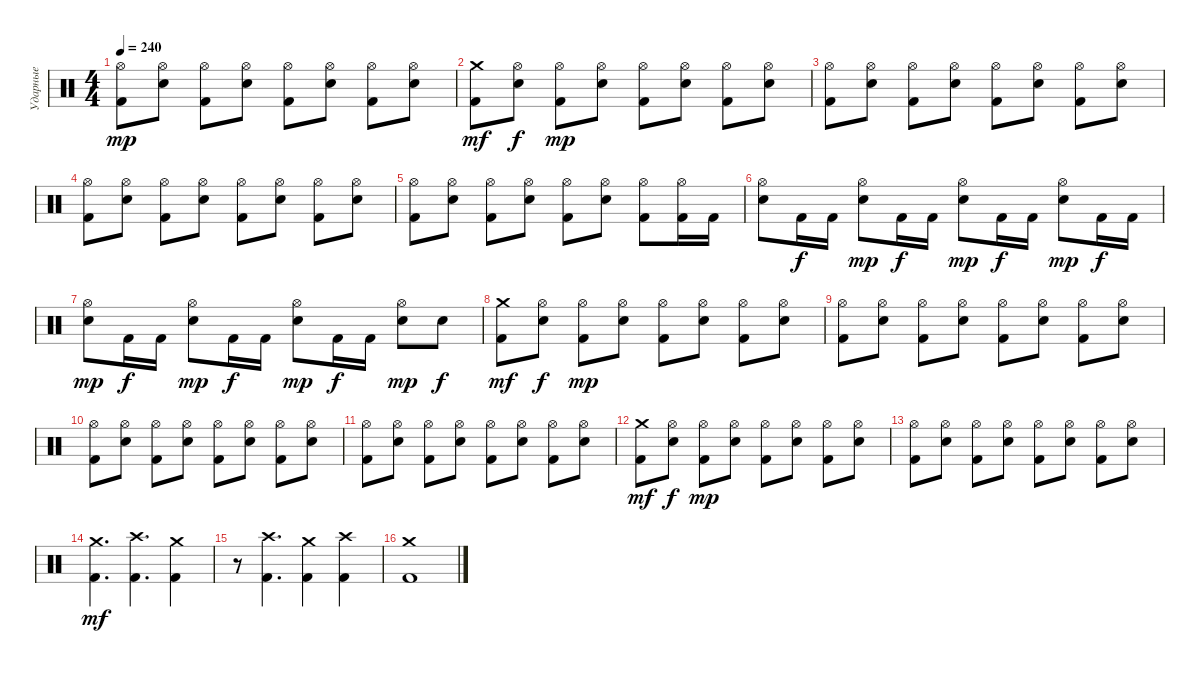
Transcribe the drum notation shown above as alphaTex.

\track ("Ударные" "Ударные") {instrument percussion}
\staff {score}
\articulation defaults
\ts (4 4)
\tempo 240
\clef neutral
\ks c
("Hi-Hat (open)" "Kick (hit) 2").8{dy mp} ("Hi-Hat (open)" "Snare (hit) 2").8 ("Hi-Hat (open)" "Kick (hit) 2").8 ("Hi-Hat (open)" "Snare (hit) 2").8 ("Hi-Hat (open)" "Kick (hit) 2").8 ("Hi-Hat (open)" "Snare (hit) 2").8 ("Hi-Hat (open)" "Kick (hit) 2").8 ("Hi-Hat (open)" "Snare (hit) 2").8 |
("Crash medium (hit)" "Kick (hit) 2").8{dy mf} ("Hi-Hat (open)" "Snare (hit) 2").8{dy f} ("Hi-Hat (open)" "Kick (hit) 2").8{dy mp} ("Hi-Hat (open)" "Snare (hit) 2").8 ("Hi-Hat (open)" "Kick (hit) 2").8 ("Hi-Hat (open)" "Snare (hit) 2").8 ("Hi-Hat (open)" "Kick (hit) 2").8 ("Hi-Hat (open)" "Snare (hit) 2").8 |
("Hi-Hat (open)" "Kick (hit) 2").8 ("Hi-Hat (open)" "Snare (hit) 2").8 ("Hi-Hat (open)" "Kick (hit) 2").8 ("Hi-Hat (open)" "Snare (hit) 2").8 ("Hi-Hat (open)" "Kick (hit) 2").8 ("Hi-Hat (open)" "Snare (hit) 2").8 ("Hi-Hat (open)" "Kick (hit) 2").8 ("Hi-Hat (open)" "Snare (hit) 2").8 |
("Hi-Hat (open)" "Kick (hit) 2").8 ("Hi-Hat (open)" "Snare (hit) 2").8 ("Hi-Hat (open)" "Kick (hit) 2").8 ("Hi-Hat (open)" "Snare (hit) 2").8 ("Hi-Hat (open)" "Kick (hit) 2").8 ("Hi-Hat (open)" "Snare (hit) 2").8 ("Hi-Hat (open)" "Kick (hit) 2").8 ("Hi-Hat (open)" "Snare (hit) 2").8 |
("Hi-Hat (open)" "Kick (hit) 2").8 ("Hi-Hat (open)" "Snare (hit) 2").8 ("Hi-Hat (open)" "Kick (hit) 2").8 ("Hi-Hat (open)" "Snare (hit) 2").8 ("Hi-Hat (open)" "Kick (hit) 2").8 ("Hi-Hat (open)" "Snare (hit) 2").8 ("Hi-Hat (open)" "Kick (hit) 2").8 ("Hi-Hat (open)" "Kick (hit) 2").16 "Kick (hit) 2".16 |
("Hi-Hat (open)" "Snare (hit) 2").8 "Kick (hit) 2".16{dy f} "Kick (hit) 2".16 ("Hi-Hat (open)" "Snare (hit) 2").8{dy mp} "Kick (hit) 2".16{dy f} "Kick (hit) 2".16 ("Hi-Hat (open)" "Snare (hit) 2").8{dy mp} "Kick (hit) 2".16{dy f} "Kick (hit) 2".16 ("Hi-Hat (open)" "Snare (hit) 2").8{dy mp} "Kick (hit) 2".16{dy f} "Kick (hit) 2".16 |
("Hi-Hat (open)" "Snare (hit) 2").8{dy mp} "Kick (hit) 2".16{dy f} "Kick (hit) 2".16 ("Hi-Hat (open)" "Snare (hit) 2").8{dy mp} "Kick (hit) 2".16{dy f} "Kick (hit) 2".16 ("Hi-Hat (open)" "Snare (hit) 2").8{dy mp} "Kick (hit) 2".16{dy f} "Kick (hit) 2".16 ("Hi-Hat (open)" "Snare (hit) 2").8{dy mp} "Snare (hit) 2".8{dy f} |
("Crash medium (hit)" "Kick (hit) 2").8{dy mf} ("Hi-Hat (open)" "Snare (hit) 2").8{dy f} ("Hi-Hat (open)" "Kick (hit) 2").8{dy mp} ("Hi-Hat (open)" "Snare (hit) 2").8 ("Hi-Hat (open)" "Kick (hit) 2").8 ("Hi-Hat (open)" "Snare (hit) 2").8 ("Hi-Hat (open)" "Kick (hit) 2").8 ("Hi-Hat (open)" "Snare (hit) 2").8 |
("Hi-Hat (open)" "Kick (hit) 2").8 ("Hi-Hat (open)" "Snare (hit) 2").8 ("Hi-Hat (open)" "Kick (hit) 2").8 ("Hi-Hat (open)" "Snare (hit) 2").8 ("Hi-Hat (open)" "Kick (hit) 2").8 ("Hi-Hat (open)" "Snare (hit) 2").8 ("Hi-Hat (open)" "Kick (hit) 2").8 ("Hi-Hat (open)" "Snare (hit) 2").8 |
("Hi-Hat (open)" "Kick (hit) 2").8 ("Hi-Hat (open)" "Snare (hit) 2").8 ("Hi-Hat (open)" "Kick (hit) 2").8 ("Hi-Hat (open)" "Snare (hit) 2").8 ("Hi-Hat (open)" "Kick (hit) 2").8 ("Hi-Hat (open)" "Snare (hit) 2").8 ("Hi-Hat (open)" "Kick (hit) 2").8 ("Hi-Hat (open)" "Snare (hit) 2").8 |
("Hi-Hat (open)" "Kick (hit) 2").8 ("Hi-Hat (open)" "Snare (hit) 2").8 ("Hi-Hat (open)" "Kick (hit) 2").8 ("Hi-Hat (open)" "Snare (hit) 2").8 ("Hi-Hat (open)" "Kick (hit) 2").8 ("Hi-Hat (open)" "Snare (hit) 2").8 ("Hi-Hat (open)" "Kick (hit) 2").8 ("Hi-Hat (open)" "Snare (hit) 2").8 |
("Crash medium (hit)" "Kick (hit) 2").8{dy mf} ("Hi-Hat (open)" "Snare (hit) 2").8{dy f} ("Hi-Hat (open)" "Kick (hit) 2").8{dy mp} ("Hi-Hat (open)" "Snare (hit) 2").8 ("Hi-Hat (open)" "Kick (hit) 2").8 ("Hi-Hat (open)" "Snare (hit) 2").8 ("Hi-Hat (open)" "Kick (hit) 2").8 ("Hi-Hat (open)" "Snare (hit) 2").8 |
("Hi-Hat (open)" "Kick (hit) 2").8 ("Hi-Hat (open)" "Snare (hit) 2").8 ("Hi-Hat (open)" "Kick (hit) 2").8 ("Hi-Hat (open)" "Snare (hit) 2").8 ("Hi-Hat (open)" "Kick (hit) 2").8 ("Hi-Hat (open)" "Snare (hit) 2").8 ("Hi-Hat (open)" "Kick (hit) 2").8 ("Hi-Hat (open)" "Snare (hit) 2").8 |
("Crash medium (hit)" "Kick (hit) 2").4{d dy mf} ("Crash high (hit)" "Kick (hit) 2").4{d} ("Crash medium (hit)" "Kick (hit) 2").4 |
r.8 ("Crash high (hit)" "Kick (hit) 2").4{d} ("Crash medium (hit)" "Kick (hit) 2").4 ("Crash high (hit)" "Kick (hit) 2").4 |
("Crash medium (hit)" "Kick (hit) 2").1
